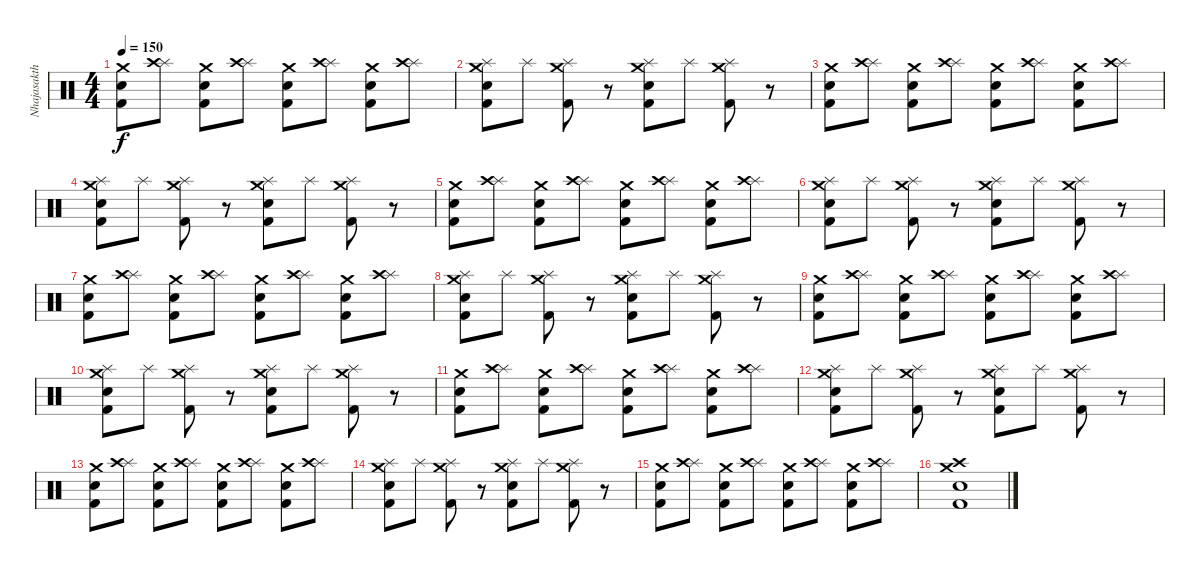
\track ("Nhajasakthee" "Nhajasakth") {instrument percussion}
\staff {score}
\articulation defaults
\ts (4 4)
\tempo 150
\clef neutral
\ks c
("Crash medium (hit)" "Kick (hit) 2" "Electric Snare (hit)").8{dy f} ("Splash (hit)" "Crash high (hit)").8 ("Crash medium (hit)" "Kick (hit) 2" "Electric Snare (hit)").8 ("Splash (hit)" "Crash high (hit)").8 ("Crash medium (hit)" "Kick (hit) 2" "Electric Snare (hit)").8 ("Splash (hit)" "Crash high (hit)").8 ("Crash medium (hit)" "Kick (hit) 2" "Electric Snare (hit)").8 ("Splash (hit)" "Crash high (hit)").8 |
("Splash (hit)" "Crash medium (hit)" "Kick (hit) 2" "Electric Snare (hit)").8 "Splash (hit)".8 ("Splash (hit)" "Crash medium (hit)" "Kick (hit) 2").8 r.8 ("Splash (hit)" "Crash medium (hit)" "Kick (hit) 2" "Electric Snare (hit)").8 "Splash (hit)".8 ("Splash (hit)" "Crash medium (hit)" "Kick (hit) 2").8 r.8 |
("Crash medium (hit)" "Kick (hit) 2" "Electric Snare (hit)").8 ("Splash (hit)" "Crash high (hit)").8 ("Crash medium (hit)" "Kick (hit) 2" "Electric Snare (hit)").8 ("Splash (hit)" "Crash high (hit)").8 ("Crash medium (hit)" "Kick (hit) 2" "Electric Snare (hit)").8 ("Splash (hit)" "Crash high (hit)").8 ("Crash medium (hit)" "Kick (hit) 2" "Electric Snare (hit)").8 ("Splash (hit)" "Crash high (hit)").8 |
("Splash (hit)" "Crash medium (hit)" "Kick (hit) 2" "Electric Snare (hit)").8 "Splash (hit)".8 ("Splash (hit)" "Crash medium (hit)" "Kick (hit) 2").8 r.8 ("Splash (hit)" "Crash medium (hit)" "Kick (hit) 2" "Electric Snare (hit)").8 "Splash (hit)".8 ("Splash (hit)" "Crash medium (hit)" "Kick (hit) 2").8 r.8 |
("Crash medium (hit)" "Kick (hit) 2" "Electric Snare (hit)").8 ("Splash (hit)" "Crash high (hit)").8 ("Crash medium (hit)" "Kick (hit) 2" "Electric Snare (hit)").8 ("Splash (hit)" "Crash high (hit)").8 ("Crash medium (hit)" "Kick (hit) 2" "Electric Snare (hit)").8 ("Splash (hit)" "Crash high (hit)").8 ("Crash medium (hit)" "Kick (hit) 2" "Electric Snare (hit)").8 ("Splash (hit)" "Crash high (hit)").8 |
("Splash (hit)" "Crash medium (hit)" "Kick (hit) 2" "Electric Snare (hit)").8 "Splash (hit)".8 ("Splash (hit)" "Crash medium (hit)" "Kick (hit) 2").8 r.8 ("Splash (hit)" "Crash medium (hit)" "Kick (hit) 2" "Electric Snare (hit)").8 "Splash (hit)".8 ("Splash (hit)" "Crash medium (hit)" "Kick (hit) 2").8 r.8 |
("Crash medium (hit)" "Kick (hit) 2" "Electric Snare (hit)").8 ("Splash (hit)" "Crash high (hit)").8 ("Crash medium (hit)" "Kick (hit) 2" "Electric Snare (hit)").8 ("Splash (hit)" "Crash high (hit)").8 ("Crash medium (hit)" "Kick (hit) 2" "Electric Snare (hit)").8 ("Splash (hit)" "Crash high (hit)").8 ("Crash medium (hit)" "Kick (hit) 2" "Electric Snare (hit)").8 ("Splash (hit)" "Crash high (hit)").8 |
("Splash (hit)" "Crash medium (hit)" "Kick (hit) 2" "Electric Snare (hit)").8 "Splash (hit)".8 ("Splash (hit)" "Crash medium (hit)" "Kick (hit) 2").8 r.8 ("Splash (hit)" "Crash medium (hit)" "Kick (hit) 2" "Electric Snare (hit)").8 "Splash (hit)".8 ("Splash (hit)" "Crash medium (hit)" "Kick (hit) 2").8 r.8 |
("Crash medium (hit)" "Kick (hit) 2" "Electric Snare (hit)").8 ("Splash (hit)" "Crash high (hit)").8 ("Crash medium (hit)" "Kick (hit) 2" "Electric Snare (hit)").8 ("Splash (hit)" "Crash high (hit)").8 ("Crash medium (hit)" "Kick (hit) 2" "Electric Snare (hit)").8 ("Splash (hit)" "Crash high (hit)").8 ("Crash medium (hit)" "Kick (hit) 2" "Electric Snare (hit)").8 ("Splash (hit)" "Crash high (hit)").8 |
("Splash (hit)" "Crash medium (hit)" "Kick (hit) 2" "Electric Snare (hit)").8 "Splash (hit)".8 ("Splash (hit)" "Crash medium (hit)" "Kick (hit) 2").8 r.8 ("Splash (hit)" "Crash medium (hit)" "Kick (hit) 2" "Electric Snare (hit)").8 "Splash (hit)".8 ("Splash (hit)" "Crash medium (hit)" "Kick (hit) 2").8 r.8 |
("Crash medium (hit)" "Kick (hit) 2" "Electric Snare (hit)").8 ("Splash (hit)" "Crash high (hit)").8 ("Crash medium (hit)" "Kick (hit) 2" "Electric Snare (hit)").8 ("Splash (hit)" "Crash high (hit)").8 ("Crash medium (hit)" "Kick (hit) 2" "Electric Snare (hit)").8 ("Splash (hit)" "Crash high (hit)").8 ("Crash medium (hit)" "Kick (hit) 2" "Electric Snare (hit)").8 ("Splash (hit)" "Crash high (hit)").8 |
("Splash (hit)" "Crash medium (hit)" "Kick (hit) 2" "Electric Snare (hit)").8 "Splash (hit)".8 ("Splash (hit)" "Crash medium (hit)" "Kick (hit) 2").8 r.8 ("Splash (hit)" "Crash medium (hit)" "Kick (hit) 2" "Electric Snare (hit)").8 "Splash (hit)".8 ("Splash (hit)" "Crash medium (hit)" "Kick (hit) 2").8 r.8 |
("Crash medium (hit)" "Kick (hit) 2" "Electric Snare (hit)").8 ("Splash (hit)" "Crash high (hit)").8 ("Crash medium (hit)" "Kick (hit) 2" "Electric Snare (hit)").8 ("Splash (hit)" "Crash high (hit)").8 ("Crash medium (hit)" "Kick (hit) 2" "Electric Snare (hit)").8 ("Splash (hit)" "Crash high (hit)").8 ("Crash medium (hit)" "Kick (hit) 2" "Electric Snare (hit)").8 ("Splash (hit)" "Crash high (hit)").8 |
("Splash (hit)" "Crash medium (hit)" "Kick (hit) 2" "Electric Snare (hit)").8 "Splash (hit)".8 ("Splash (hit)" "Crash medium (hit)" "Kick (hit) 2").8 r.8 ("Splash (hit)" "Crash medium (hit)" "Kick (hit) 2" "Electric Snare (hit)").8 "Splash (hit)".8 ("Splash (hit)" "Crash medium (hit)" "Kick (hit) 2").8 r.8 |
("Crash medium (hit)" "Kick (hit) 2" "Electric Snare (hit)").8 ("Splash (hit)" "Crash high (hit)").8 ("Crash medium (hit)" "Kick (hit) 2" "Electric Snare (hit)").8 ("Splash (hit)" "Crash high (hit)").8 ("Crash medium (hit)" "Kick (hit) 2" "Electric Snare (hit)").8 ("Splash (hit)" "Crash high (hit)").8 ("Crash medium (hit)" "Kick (hit) 2" "Electric Snare (hit)").8 ("Splash (hit)" "Crash high (hit)").8 |
("Crash medium (hit)" "Crash high (hit)" "Kick (hit) 2" "Electric Snare (hit)").1
